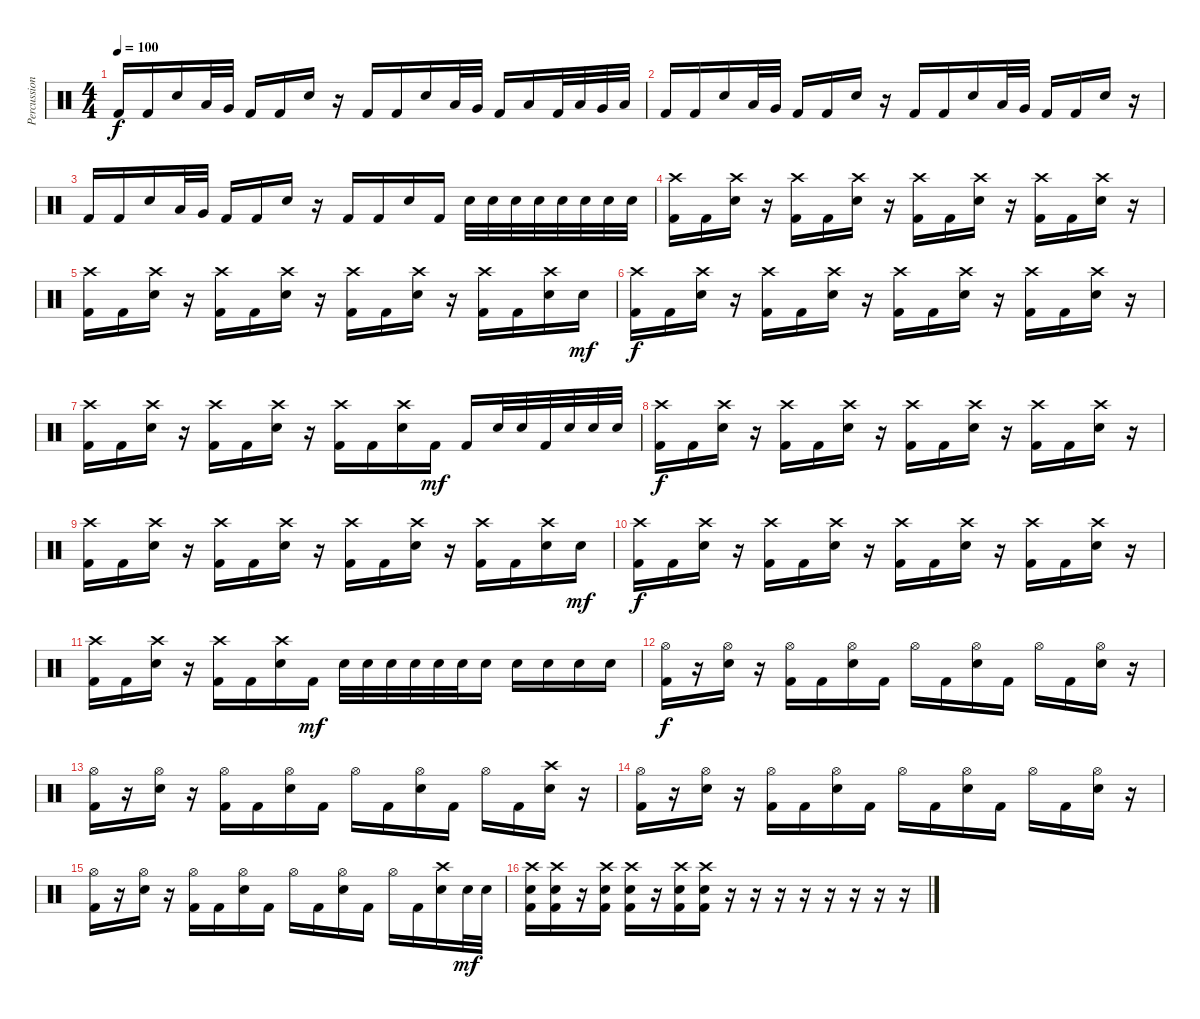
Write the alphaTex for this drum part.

\track ("Percussions" "Percussion") {instrument percussion}
\staff {score}
\articulation defaults
\ts (4 4)
\tempo 100
\clef neutral
\ks c "Kick (hit) 2".16{dy f} "Kick (hit) 2".16 "Electric Snare (hit)".16 "Low Tom (hit)".32 "Very Low Tom (hit)".32 "Kick (hit) 2".16 "Kick (hit) 2".16 "Electric Snare (hit)".16
r.16 "Kick (hit) 2".16 "Kick (hit) 2".16 "Electric Snare (hit)".16 "Low Tom (hit)".32 "Very Low Tom (hit)".32 "Kick (hit) 2".16 "Low Floor Tom (hit)".16 "Kick (hit) 2".32 "Low Tom (hit)".32 "Very Low Tom (hit)".32 "Low Floor Tom (hit)".32 |
"Kick (hit) 2".16 "Kick (hit) 2".16 "Electric Snare (hit)".16 "Low Tom (hit)".32 "Very Low Tom (hit)".32 "Kick (hit) 2".16 "Kick (hit) 2".16 "Electric Snare (hit)".16 r.16 "Kick (hit) 2".16 "Kick (hit) 2".16 "Electric Snare (hit)".16 "Low Tom (hit)".32 "Very Low Tom (hit)".32 "Kick (hit) 2".16 "Kick (hit) 2".16 "Electric Snare (hit)".16 r.16 |
"Kick (hit) 2".16 "Kick (hit) 2".16 "Electric Snare (hit)".16 "Low Tom (hit)".32 "Very Low Tom (hit)".32 "Kick (hit) 2".16 "Kick (hit) 2".16 "Electric Snare (hit)".16 r.16 "Kick (hit) 2".16 "Kick (hit) 2".16 "Electric Snare (hit)".16 "Kick (hit) 2".16 "Electric Snare (hit)".32 "Electric Snare (hit)".32 "Electric Snare (hit)".32 "Electric Snare (hit)".32 "Electric Snare (hit)".32 "Electric Snare (hit)".32 "Electric Snare (hit)".32 "Electric Snare (hit)".32 |
("Crash high (hit)" "Kick (hit) 2").16 "Kick (hit) 2".16 ("Crash high (hit)" "Electric Snare (hit)").16 r.16 ("Crash high (hit)" "Kick (hit) 2").16 "Kick (hit) 2".16 ("Crash high (hit)" "Electric Snare (hit)").16 r.16 ("Crash high (hit)" "Kick (hit) 2").16 "Kick (hit) 2".16 ("Crash high (hit)" "Electric Snare (hit)").16 r.16 ("Crash high (hit)" "Kick (hit) 2").16 "Kick (hit) 2".16 ("Crash high (hit)" "Electric Snare (hit)").16 r.16 |
("Crash high (hit)" "Kick (hit) 2").16 "Kick (hit) 2".16 ("Crash high (hit)" "Electric Snare (hit)").16 r.16 ("Crash high (hit)" "Kick (hit) 2").16 "Kick (hit) 2".16 ("Crash high (hit)" "Electric Snare (hit)").16 r.16 ("Crash high (hit)" "Kick (hit) 2").16 "Kick (hit) 2".16 ("Crash high (hit)" "Electric Snare (hit)").16 r.16 ("Crash high (hit)" "Kick (hit) 2").16 "Kick (hit) 2".16 ("Crash high (hit)" "Electric Snare (hit)").16 "Electric Snare (hit)".16{dy mf} |
("Crash high (hit)" "Kick (hit) 2").16{dy f} "Kick (hit) 2".16 ("Crash high (hit)" "Electric Snare (hit)").16 r.16 ("Crash high (hit)" "Kick (hit) 2").16 "Kick (hit) 2".16 ("Crash high (hit)" "Electric Snare (hit)").16 r.16 ("Crash high (hit)" "Kick (hit) 2").16 "Kick (hit) 2".16 ("Crash high (hit)" "Electric Snare (hit)").16 r.16 ("Crash high (hit)" "Kick (hit) 2").16 "Kick (hit) 2".16 ("Crash high (hit)" "Electric Snare (hit)").16 r.16 |
("Crash high (hit)" "Kick (hit) 2").16 "Kick (hit) 2".16 ("Crash high (hit)" "Electric Snare (hit)").16 r.16 ("Crash high (hit)" "Kick (hit) 2").16 "Kick (hit) 2".16 ("Crash high (hit)" "Electric Snare (hit)").16 r.16 ("Crash high (hit)" "Kick (hit) 2").16 "Kick (hit) 2".16 ("Crash high (hit)" "Electric Snare (hit)").16 "Kick (hit) 2".16{dy mf} "Kick (hit) 2".16 "Electric Snare (hit)".32 "Electric Snare (hit)".32 "Kick (hit) 2".32 "Electric Snare (hit)".32 "Electric Snare (hit)".32 "Electric Snare (hit)".32 |
("Crash high (hit)" "Kick (hit) 2").16{dy f} "Kick (hit) 2".16 ("Crash high (hit)" "Electric Snare (hit)").16 r.16 ("Crash high (hit)" "Kick (hit) 2").16 "Kick (hit) 2".16 ("Crash high (hit)" "Electric Snare (hit)").16 r.16 ("Crash high (hit)" "Kick (hit) 2").16 "Kick (hit) 2".16 ("Crash high (hit)" "Electric Snare (hit)").16 r.16 ("Crash high (hit)" "Kick (hit) 2").16 "Kick (hit) 2".16 ("Crash high (hit)" "Electric Snare (hit)").16 r.16 |
("Crash high (hit)" "Kick (hit) 2").16 "Kick (hit) 2".16 ("Crash high (hit)" "Electric Snare (hit)").16 r.16 ("Crash high (hit)" "Kick (hit) 2").16 "Kick (hit) 2".16 ("Crash high (hit)" "Electric Snare (hit)").16 r.16 ("Crash high (hit)" "Kick (hit) 2").16 "Kick (hit) 2".16 ("Crash high (hit)" "Electric Snare (hit)").16 r.16 ("Crash high (hit)" "Kick (hit) 2").16 "Kick (hit) 2".16 ("Crash high (hit)" "Electric Snare (hit)").16 "Electric Snare (hit)".16{dy mf} |
("Crash high (hit)" "Kick (hit) 2").16{dy f} "Kick (hit) 2".16 ("Crash high (hit)" "Electric Snare (hit)").16 r.16 ("Crash high (hit)" "Kick (hit) 2").16 "Kick (hit) 2".16 ("Crash high (hit)" "Electric Snare (hit)").16 r.16 ("Crash high (hit)" "Kick (hit) 2").16 "Kick (hit) 2".16 ("Crash high (hit)" "Electric Snare (hit)").16 r.16 ("Crash high (hit)" "Kick (hit) 2").16 "Kick (hit) 2".16 ("Crash high (hit)" "Electric Snare (hit)").16 r.16 |
("Crash high (hit)" "Kick (hit) 2").16 "Kick (hit) 2".16 ("Crash high (hit)" "Electric Snare (hit)").16 r.16 ("Crash high (hit)" "Kick (hit) 2").16 "Kick (hit) 2".16 ("Crash high (hit)" "Electric Snare (hit)").16 "Kick (hit) 2".16{dy mf} "Electric Snare (hit)".32 "Electric Snare (hit)".32 "Electric Snare (hit)".32 "Electric Snare (hit)".32 "Electric Snare (hit)".32 "Electric Snare (hit)".32 "Electric Snare (hit)".16 "Electric Snare (hit)".16 "Electric Snare (hit)".16 "Electric Snare (hit)".16 "Electric Snare (hit)".16 |
("Hi-Hat (open)" "Kick (hit) 2").16{dy f} r.16 ("Hi-Hat (open)" "Electric Snare (hit)").16 r.16 ("Hi-Hat (open)" "Kick (hit) 2").16 "Kick (hit) 2".16 ("Hi-Hat (open)" "Electric Snare (hit)").16 "Kick (hit) 2".16 "Hi-Hat (open)".16 "Kick (hit) 2".16 ("Hi-Hat (open)" "Electric Snare (hit)").16 "Kick (hit) 2".16 "Hi-Hat (open)".16 "Kick (hit) 2".16 ("Hi-Hat (open)" "Electric Snare (hit)").16 r.16 |
("Hi-Hat (open)" "Kick (hit) 2").16 r.16 ("Hi-Hat (open)" "Electric Snare (hit)").16 r.16 ("Hi-Hat (open)" "Kick (hit) 2").16 "Kick (hit) 2".16 ("Hi-Hat (open)" "Electric Snare (hit)").16 "Kick (hit) 2".16 "Hi-Hat (open)".16 "Kick (hit) 2".16 ("Hi-Hat (open)" "Electric Snare (hit)").16 "Kick (hit) 2".16 "Hi-Hat (open)".16 "Kick (hit) 2".16 ("Crash high (hit)" "Electric Snare (hit)").16 r.16 |
("Hi-Hat (open)" "Kick (hit) 2").16 r.16 ("Hi-Hat (open)" "Electric Snare (hit)").16 r.16 ("Hi-Hat (open)" "Kick (hit) 2").16 "Kick (hit) 2".16 ("Hi-Hat (open)" "Electric Snare (hit)").16 "Kick (hit) 2".16 "Hi-Hat (open)".16 "Kick (hit) 2".16 ("Hi-Hat (open)" "Electric Snare (hit)").16 "Kick (hit) 2".16 "Hi-Hat (open)".16 "Kick (hit) 2".16 ("Hi-Hat (open)" "Electric Snare (hit)").16 r.16 |
("Hi-Hat (open)" "Kick (hit) 2").16 r.16 ("Hi-Hat (open)" "Electric Snare (hit)").16 r.16 ("Hi-Hat (open)" "Kick (hit) 2").16 "Kick (hit) 2".16 ("Hi-Hat (open)" "Electric Snare (hit)").16 "Kick (hit) 2".16 "Hi-Hat (open)".16 "Kick (hit) 2".16 ("Hi-Hat (open)" "Electric Snare (hit)").16 "Kick (hit) 2".16 "Hi-Hat (open)".16 "Kick (hit) 2".16 ("Crash high (hit)" "Electric Snare (hit)").16 "Electric Snare (hit)".32{dy mf} "Electric Snare (hit)".32 |
("Crash high (hit)" "Electric Snare (hit)" "Kick (hit) 2").16 ("Crash high (hit)" "Electric Snare (hit)" "Kick (hit) 2").16 r.16 ("Crash high (hit)" "Electric Snare (hit)" "Kick (hit) 2").16 ("Crash high (hit)" "Electric Snare (hit)" "Kick (hit) 2").16 r.16 ("Crash high (hit)" "Electric Snare (hit)" "Kick (hit) 2").16 ("Crash high (hit)" "Electric Snare (hit)" "Kick (hit) 2").16 r.16 r.16 r.16 r.16 r.16 r.16 r.16 r.16
